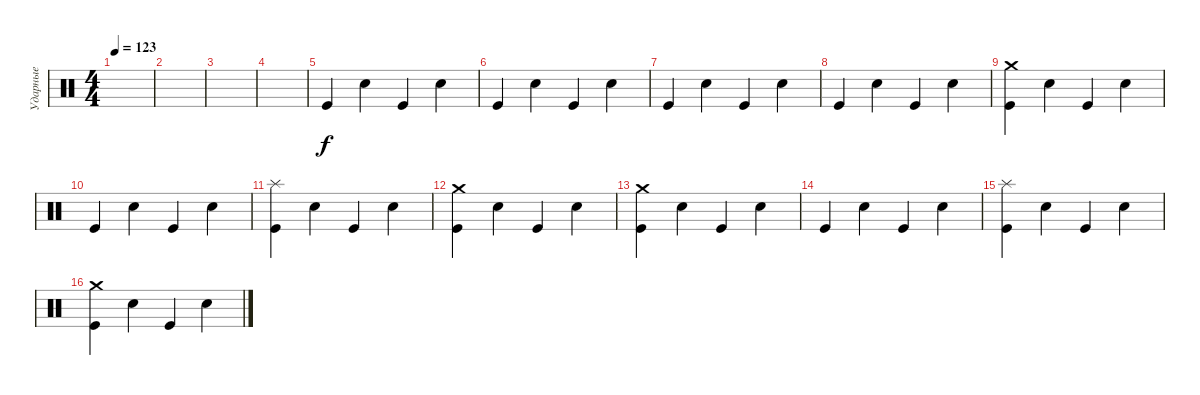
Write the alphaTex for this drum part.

\track ("Ударные" "Ударные") {instrument percussion}
\staff {score}
\articulation defaults
\ts (4 4)
\tempo 123
\clef neutral
\ks c
|
|
|
|
"Kick (hit)".4 "Snare (hit) 2".4 "Kick (hit)".4 "Snare (hit) 2".4 |
"Kick (hit)".4 "Snare (hit) 2".4 "Kick (hit)".4 "Snare (hit) 2".4 |
"Kick (hit)".4 "Snare (hit) 2".4 "Kick (hit)".4 "Snare (hit) 2".4 |
"Kick (hit)".4 "Snare (hit) 2".4 "Kick (hit)".4 "Snare (hit) 2".4 |
("Crash medium (hit)" "Kick (hit)").4 "Snare (hit) 2".4 "Kick (hit)".4 "Snare (hit) 2".4 |
"Kick (hit)".4 "Snare (hit) 2".4 "Kick (hit)".4 "Snare (hit) 2".4 |
("Splash (hit)" "Kick (hit)").4 "Snare (hit) 2".4 "Kick (hit)".4 "Snare (hit) 2".4 |
("Crash medium (hit)" "Kick (hit)").4 "Snare (hit) 2".4 "Kick (hit)".4 "Snare (hit) 2".4 |
("Crash medium (hit)" "Kick (hit)").4 "Snare (hit) 2".4 "Kick (hit)".4 "Snare (hit) 2".4 |
"Kick (hit)".4 "Snare (hit) 2".4 "Kick (hit)".4 "Snare (hit) 2".4 |
("Splash (hit)" "Kick (hit)").4 "Snare (hit) 2".4 "Kick (hit)".4 "Snare (hit) 2".4 |
("Crash medium (hit)" "Kick (hit)").4 "Snare (hit) 2".4 "Kick (hit)".4 "Snare (hit) 2".4
